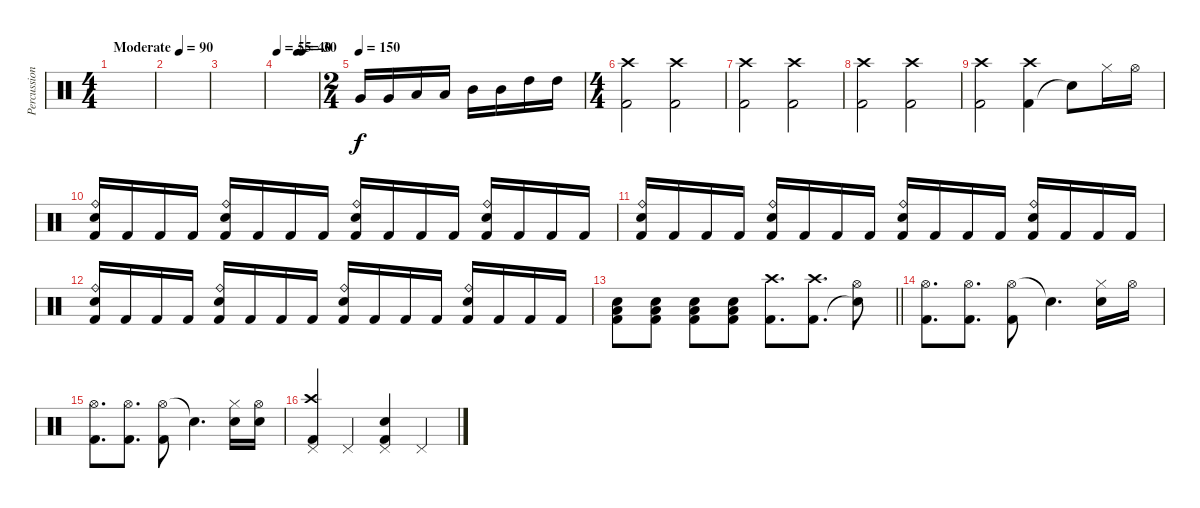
\track ("Percussion" "Percussion") {instrument percussion}
\staff {score}
\articulation defaults
\ts (4 4)
\tempo (90 "Moderate")
\clef neutral
\ks c
|
|
|
\tempo 55
\tempo (40 0.5)
\tempo (30 0.625)
|
\ts (2 4)
\tempo (150)
"Very Low Tom (hit)".16 "Very Low Tom (hit)".16 "Low Tom (hit)".16 "Low Tom (hit)".16 "Mid Tom (hit)".16 "Mid Tom (hit)".16 "High Tom (hit)".16 "High Tom (hit)".16 |
\ts (4 4)
("Kick (hit) 2" "Crash high (hit)").2 ("Kick (hit) 2" "Crash high (hit)").2 |
("Kick (hit) 2" "Crash high (hit)").2 ("Kick (hit) 2" "Crash high (hit)").2 |
("Kick (hit) 2" "Crash high (hit)").2 ("Kick (hit) 2" "Crash high (hit)").2 |
("Kick (hit) 2" "Crash high (hit)").2 ("Kick (hit) 2" "Crash high (hit)").4 "Snare (hit)"{t}.8 "Hi-Hat (closed)".16 "Hi-Hat (open)".16 |
("Kick (hit) 2" "Ride (bell)" "Electric Snare (hit)").16 "Kick (hit) 2".16 "Kick (hit) 2".16 "Kick (hit) 2".16 ("Kick (hit) 2" "Ride (bell)" "Electric Snare (hit)").16 "Kick (hit) 2".16 "Kick (hit) 2".16 "Kick (hit) 2".16 ("Kick (hit) 2" "Ride (bell)" "Electric Snare (hit)").16 "Kick (hit) 2".16 "Kick (hit) 2".16 "Kick (hit) 2".16 ("Kick (hit) 2" "Ride (bell)" "Electric Snare (hit)").16 "Kick (hit) 2".16 "Kick (hit) 2".16 "Kick (hit) 2".16 |
("Kick (hit) 2" "Ride (bell)" "Electric Snare (hit)").16 "Kick (hit) 2".16 "Kick (hit) 2".16 "Kick (hit) 2".16 ("Kick (hit) 2" "Ride (bell)" "Electric Snare (hit)").16 "Kick (hit) 2".16 "Kick (hit) 2".16 "Kick (hit) 2".16 ("Kick (hit) 2" "Ride (bell)" "Electric Snare (hit)").16 "Kick (hit) 2".16 "Kick (hit) 2".16 "Kick (hit) 2".16 ("Kick (hit) 2" "Ride (bell)" "Electric Snare (hit)").16 "Kick (hit) 2".16 "Kick (hit) 2".16 "Kick (hit) 2".16 |
("Kick (hit) 2" "Ride (bell)" "Electric Snare (hit)").16 "Kick (hit) 2".16 "Kick (hit) 2".16 "Kick (hit) 2".16 ("Kick (hit) 2" "Ride (bell)" "Electric Snare (hit)").16 "Kick (hit) 2".16 "Kick (hit) 2".16 "Kick (hit) 2".16 ("Kick (hit) 2" "Ride (bell)" "Electric Snare (hit)").16 "Kick (hit) 2".16 "Kick (hit) 2".16 "Kick (hit) 2".16 ("Kick (hit) 2" "Ride (bell)" "Electric Snare (hit)").16 "Kick (hit) 2".16 "Kick (hit) 2".16 "Kick (hit) 2".16 |
\barLineRight lightlight
("Electric Snare (hit)" "Low Tom (hit)" "Kick (hit) 2").8 ("Electric Snare (hit)" "Low Tom (hit)" "Kick (hit) 2").8 ("Electric Snare (hit)" "Low Tom (hit)" "Kick (hit) 2").8 ("Electric Snare (hit)" "Low Tom (hit)" "Kick (hit) 2").8 ("Crash high (hit)" "Kick (hit) 2").8{d} ("Crash high (hit)" "Kick (hit) 2").8{d} ("Hi-Hat (open)" "Snare (hit)"{t}).8 |
("Hi-Hat (open)" "Kick (hit) 2").8{d} ("Hi-Hat (open)" "Kick (hit) 2").8{d} ("Hi-Hat (open)" "Kick (hit) 2").8 "Snare (hit)"{t}.4{d} ("Hi-Hat (closed)" "Electric Snare (hit)").16 "Hi-Hat (open)".16 |
("Hi-Hat (open)" "Kick (hit) 2").8{d} ("Hi-Hat (open)" "Kick (hit) 2").8{d} ("Hi-Hat (open)" "Kick (hit) 2").8 "Snare (hit)"{t}.4{d} ("Hi-Hat (closed)" "Electric Snare (hit)").16 ("Hi-Hat (open)" "Electric Snare (hit)").16 |
("Kick (hit) 2" "Pedal Hi-Hat (hit)" "Crash high (hit)").4 "Pedal Hi-Hat (hit)".4 ("Kick (hit) 2" "Pedal Hi-Hat (hit)" "Electric Snare (hit)").4 "Pedal Hi-Hat (hit)".4
